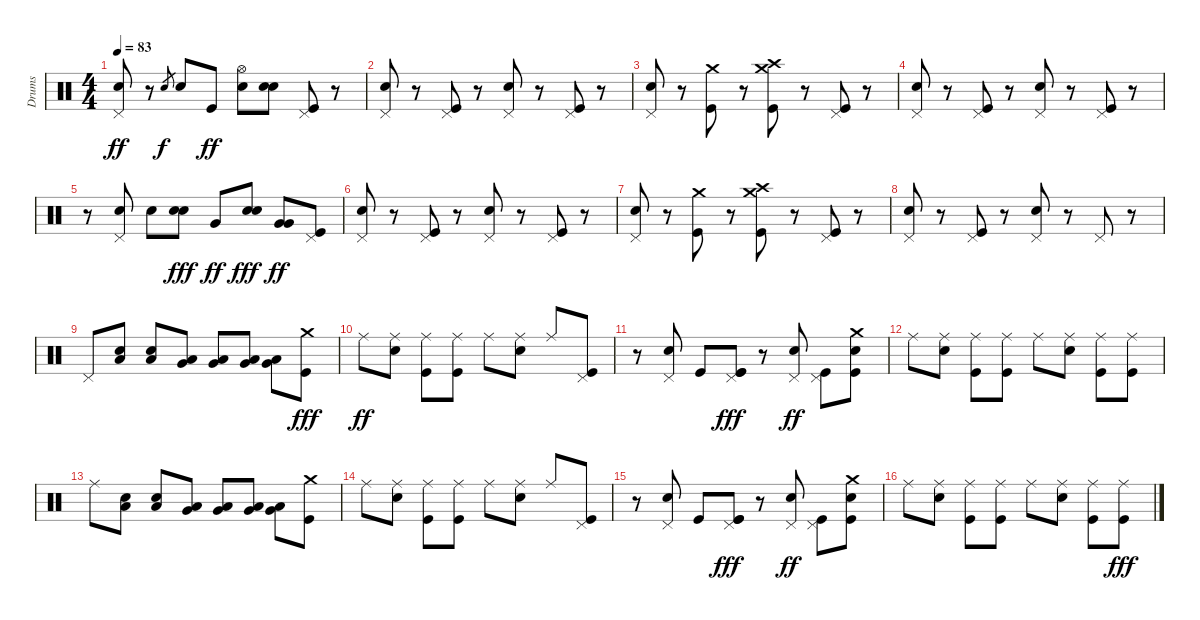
\track ("Drums" "Drums") {instrument percussion}
\staff {score}
\articulation defaults
\ts (4 4)
\tempo 83
\clef neutral
\ks c
("Snare (hit) 2" "Pedal Hi-Hat (hit)").8{dy ff} r.8 "Snare (hit) 2".8{gr dy f} "Snare (hit) 2".8 "Kick (hit)".8{dy ff} ("Snare (hit) 2" "Hi-Hat (open)").8 ("Snare (hit) 2" "Snare (hit) 2").8 ("Pedal Hi-Hat (hit)" "Kick (hit)").8 r.8 |
("Pedal Hi-Hat (hit)" "Snare (hit) 2").8 r.8 ("Kick (hit)" "Pedal Hi-Hat (hit)").8 r.8 ("Pedal Hi-Hat (hit)" "Snare (hit) 2").8 r.8 ("Pedal Hi-Hat (hit)" "Kick (hit)").8 r.8 |
("Snare (hit) 2" "Pedal Hi-Hat (hit)").8 r.8 ("Kick (hit)" "Crash medium (hit)").8 r.8 ("Crash high (hit)" "Kick (hit)" "Crash medium (hit)").8 r.8 ("Kick (hit)" "Pedal Hi-Hat (hit)").8 r.8 |
("Pedal Hi-Hat (hit)" "Snare (hit) 2").8 r.8 ("Pedal Hi-Hat (hit)" "Kick (hit)").8 r.8 ("Pedal Hi-Hat (hit)" "Snare (hit) 2").8 r.8 ("Kick (hit)" "Pedal Hi-Hat (hit)").8 r.8 |
r.8 ("Snare (hit) 2" "Pedal Hi-Hat (hit)").8 "Snare (hit) 2".8 ("Snare (hit) 2" "Snare (hit) 2").8{dy fff} "Very Low Tom (hit)".8{dy ff} ("Snare (hit) 2" "Snare (hit) 2").8{dy fff} ("Very Low Tom (hit)" "Very Low Tom (hit)").8{dy ff} ("Pedal Hi-Hat (hit)" "Kick (hit)").8 |
("Pedal Hi-Hat (hit)" "Snare (hit) 2").8 r.8 ("Pedal Hi-Hat (hit)" "Kick (hit)").8 r.8 ("Snare (hit) 2" "Pedal Hi-Hat (hit)").8 r.8 ("Pedal Hi-Hat (hit)" "Kick (hit)").8 r.8 |
("Pedal Hi-Hat (hit)" "Snare (hit) 2").8 r.8 ("Kick (hit)" "Crash medium (hit)").8 r.8 ("Crash medium (hit)" "Kick (hit)" "Crash high (hit)").8 r.8 ("Kick (hit)" "Pedal Hi-Hat (hit)").8 r.8 |
("Pedal Hi-Hat (hit)" "Snare (hit) 2").8 r.8 ("Kick (hit)" "Pedal Hi-Hat (hit)").8 r.8 ("Pedal Hi-Hat (hit)" "Snare (hit) 2").8 r.8 "Pedal Hi-Hat (hit)".8 r.8 |
"Pedal Hi-Hat (hit)".8 ("Low Tom (hit)" "Snare (hit) 2").8 ("Low Tom (hit)" "Snare (hit) 2").8 ("Low Tom (hit)" "Very Low Tom (hit)").8 ("Very Low Tom (hit)" "Low Tom (hit)").8 ("Very Low Tom (hit)" "Low Floor Tom (hit)").8 ("Low Floor Tom (hit)" "Very Low Tom (hit)").8 ("Crash medium (hit)" "Kick (hit)").8{dy fff} |
"Ride (middle)".8{dy ff} ("Ride (middle)" "Snare (hit) 2").8 ("Kick (hit)" "Ride (middle)").8 ("Kick (hit)" "Ride (middle)").8 "Ride (middle)".8 ("Ride (middle)" "Snare (hit) 2").8 "Ride (middle)".8 ("Pedal Hi-Hat (hit)" "Kick (hit)").8 |
r.8 ("Snare (hit) 2" "Pedal Hi-Hat (hit)").8 "Kick (hit)".8 ("Kick (hit)" "Pedal Hi-Hat (hit)" "Kick (hit)").8{dy fff} r.8 ("Snare (hit) 2" "Pedal Hi-Hat (hit)").8{dy ff} ("Kick (hit)" "Pedal Hi-Hat (hit)").8 ("Snare (hit) 2" "Crash medium (hit)" "Kick (hit)").8 |
"Ride (middle)".8 ("Snare (hit) 2" "Ride (middle)").8 ("Ride (middle)" "Kick (hit)").8 ("Kick (hit)" "Ride (middle)").8 "Ride (middle)".8 ("Ride (middle)" "Snare (hit) 2").8 ("Kick (hit)" "Ride (middle)").8 ("Ride (middle)" "Kick (hit)").8 |
"Ride (middle)".8 ("Low Tom (hit)" "Snare (hit) 2").8 ("Low Tom (hit)" "Snare (hit) 2").8 ("Very Low Tom (hit)" "Low Tom (hit)").8 ("Low Tom (hit)" "Very Low Tom (hit)").8 ("Very Low Tom (hit)" "Low Floor Tom (hit)").8 ("Low Floor Tom (hit)" "Very Low Tom (hit)").8 ("Crash medium (hit)" "Kick (hit)").8 |
"Ride (middle)".8 ("Snare (hit) 2" "Ride (middle)").8 ("Ride (middle)" "Kick (hit)").8 ("Ride (middle)" "Kick (hit)").8 "Ride (middle)".8 ("Ride (middle)" "Snare (hit) 2").8 "Ride (middle)".8 ("Pedal Hi-Hat (hit)" "Kick (hit)").8 |
r.8 ("Snare (hit) 2" "Pedal Hi-Hat (hit)").8 "Kick (hit)".8 ("Kick (hit)" "Pedal Hi-Hat (hit)" "Kick (hit)").8{dy fff} r.8 ("Snare (hit) 2" "Pedal Hi-Hat (hit)").8{dy ff} ("Pedal Hi-Hat (hit)" "Kick (hit)").8 ("Snare (hit) 2" "Crash medium (hit)" "Kick (hit)").8 |
"Ride (middle)".8 ("Snare (hit) 2" "Ride (middle)").8 ("Ride (middle)" "Kick (hit)").8 ("Ride (middle)" "Kick (hit)").8 "Ride (middle)".8 ("Ride (middle)" "Snare (hit) 2").8 ("Ride (middle)" "Kick (hit)").8 ("Ride (middle)" "Kick (hit)").8{dy fff}
